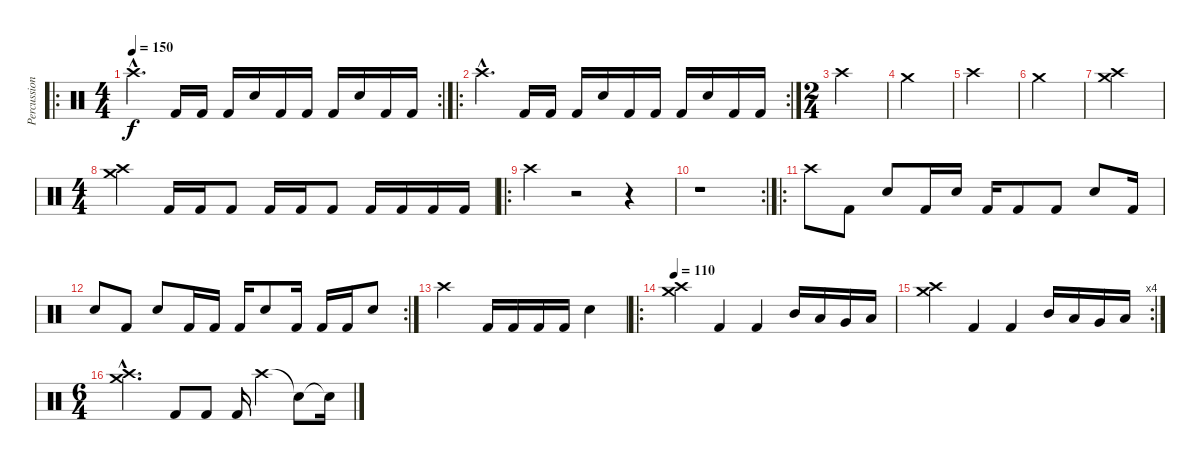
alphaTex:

\track ("Percussion" "Percussion") {instrument percussion}
\staff {score}
\articulation defaults
\ro
\rc 2
\ts (4 4)
\tempo 150
\clef neutral
\ks c "Crash high (hit)"{hac}.4{d dy f} "Kick (hit) 2".16 "Kick (hit) 2".16 "Kick (hit) 2".16 "Electric Snare (hit)".16 "Kick (hit) 2".16 "Kick (hit) 2".16 "Kick (hit) 2".16 "Electric Snare (hit)".16 "Kick (hit) 2".16 "Kick (hit) 2".16
|
\ro
\rc 2 "Crash high (hit)"{hac}.4{d} "Kick (hit) 2".16 "Kick (hit) 2".16 "Kick (hit) 2".16 "Electric Snare (hit)".16 "Kick (hit) 2".16 "Kick (hit) 2".16 "Kick (hit) 2".16 "Electric Snare (hit)".16 "Kick (hit) 2".16 "Kick (hit) 2".16
|
\ts (2 4)
"Crash high (hit)".2 |
"Crash medium (hit)".2 |
"Crash high (hit)".2 |
"Crash medium (hit)".2 |
("Crash medium (hit)" "Crash high (hit)").2 |
\ts (4 4)
("Crash medium (hit)" "Crash high (hit)").4 "Kick (hit) 2".16 "Kick (hit) 2".16 "Kick (hit) 2".8 "Kick (hit) 2".16 "Kick (hit) 2".16 "Kick (hit) 2".8 "Kick (hit) 2".16 "Kick (hit) 2".16 "Kick (hit) 2".16 "Kick (hit) 2".16 |
\ro "Crash high (hit)".4
r.2 r.4 |
\rc 2
r.1 |
\ro "Crash high (hit)".8 "Kick (hit) 2".8 "Electric Snare (hit)".8 "Kick (hit) 2".16 "Electric Snare (hit)".16 "Kick (hit) 2".16 "Kick (hit) 2".8 "Kick (hit) 2".8 "Electric Snare (hit)".8 "Kick (hit) 2".16
|
\rc 2 "Electric Snare (hit)".8 "Kick (hit) 2".8 "Electric Snare (hit)".8 "Kick (hit) 2".16 "Kick (hit) 2".16 "Kick (hit) 2".16 "Electric Snare (hit)".8 "Kick (hit) 2".16 "Kick (hit) 2".16 "Kick (hit) 2".16 "Electric Snare (hit)".8
|
"Crash high (hit)".2 "Kick (hit) 2".16 "Kick (hit) 2".16 "Kick (hit) 2".16 "Kick (hit) 2".16 "Electric Snare (hit)".4 |
\ro
\tempo 110
("Crash high (hit)" "Crash medium (hit)").4 "Kick (hit) 2".4 "Kick (hit) 2".4 "Mid Tom (hit)".16 "Low Tom (hit)".16 "Very Low Tom (hit)".16 "Low Floor Tom (hit)".16 |
\rc 4
("Crash high (hit)" "Crash medium (hit)").4 "Kick (hit) 2".4 "Kick (hit) 2".4 "Mid Tom (hit)".16 "Low Tom (hit)".16 "Very Low Tom (hit)".16 "Low Floor Tom (hit)".16 |
\ts (6 4)
("Crash high (hit)"{hac} "Crash medium (hit)"{hac}).2{d} "Kick (hit) 2".8 "Kick (hit) 2".8 "Kick (hit) 2".16 "Crash high (hit)".4 "Snare (hit)"{t}.8 "Snare (hit)"{t}.16
